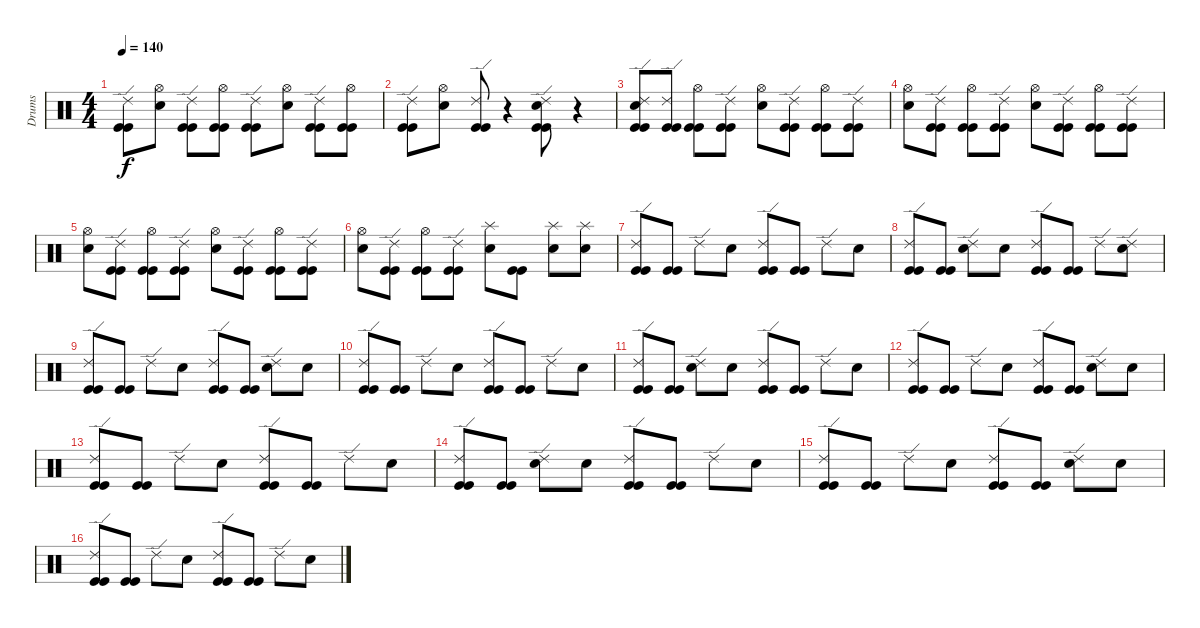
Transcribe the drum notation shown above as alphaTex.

\track ("Drums" "Drums") {instrument percussion}
\staff {score}
\articulation defaults
\ts (4 4)
\tempo 140
\clef neutral
\ks c
("Ride (edge) 2" "Kick (hit)" "Kick (hit)").8{dy f} ("Hi-Hat (open)" "Electric Snare (hit)").8 ("Ride (edge) 2" "Kick (hit)" "Kick (hit)").8 ("Hi-Hat (open)" "Kick (hit)" "Kick (hit)").8 ("Ride (edge) 2" "Kick (hit)" "Kick (hit)").8 ("Hi-Hat (open)" "Electric Snare (hit)").8 ("Ride (edge) 2" "Kick (hit)" "Kick (hit)").8 ("Hi-Hat (open)" "Kick (hit)" "Kick (hit)").8 |
("Ride (edge) 2" "Kick (hit)" "Kick (hit)").8 ("Hi-Hat (open)" "Electric Snare (hit)").8 ("Ride (edge) 2" "Kick (hit)" "Kick (hit)").8 r.4 ("Ride (edge) 2" "Electric Snare (hit)" "Kick (hit)" "Kick (hit)").8 r.4 |
("Ride (edge) 2" "Electric Snare (hit)" "Kick (hit)" "Kick (hit)").8 ("Ride (edge) 2" "Kick (hit)" "Kick (hit)").8 ("Hi-Hat (open)" "Kick (hit)" "Kick (hit)").8 ("Ride (edge) 2" "Kick (hit)" "Kick (hit)").8 ("Hi-Hat (open)" "Electric Snare (hit)").8 ("Ride (edge) 2" "Kick (hit)" "Kick (hit)").8 ("Hi-Hat (open)" "Kick (hit)" "Kick (hit)").8 ("Ride (edge) 2" "Kick (hit)" "Kick (hit)").8 |
("Hi-Hat (open)" "Electric Snare (hit)").8 ("Ride (edge) 2" "Kick (hit)" "Kick (hit)").8 ("Hi-Hat (open)" "Kick (hit)" "Kick (hit)").8 ("Ride (edge) 2" "Kick (hit)" "Kick (hit)").8 ("Hi-Hat (open)" "Electric Snare (hit)").8 ("Ride (edge) 2" "Kick (hit)" "Kick (hit)").8 ("Hi-Hat (open)" "Kick (hit)" "Kick (hit)").8 ("Ride (edge) 2" "Kick (hit)" "Kick (hit)").8 |
("Hi-Hat (open)" "Electric Snare (hit)").8 ("Ride (edge) 2" "Kick (hit)" "Kick (hit)").8 ("Hi-Hat (open)" "Kick (hit)" "Kick (hit)").8 ("Ride (edge) 2" "Kick (hit)" "Kick (hit)").8 ("Hi-Hat (open)" "Electric Snare (hit)").8 ("Ride (edge) 2" "Kick (hit)" "Kick (hit)").8 ("Hi-Hat (open)" "Kick (hit)" "Kick (hit)").8 ("Ride (edge) 2" "Kick (hit)" "Kick (hit)").8 |
("Hi-Hat (open)" "Electric Snare (hit)").8 ("Ride (edge) 2" "Kick (hit)" "Kick (hit)").8 ("Hi-Hat (open)" "Kick (hit)" "Kick (hit)").8 ("Ride (edge) 2" "Kick (hit)" "Kick (hit)").8 ("Splash (hit)" "Electric Snare (hit)").8 ("Kick (hit)" "Kick (hit)").8 ("Splash (hit)" "Electric Snare (hit)").8 ("Splash (hit)" "Electric Snare (hit)").8 |
("Ride (edge) 2" "Kick (hit)" "Kick (hit)").8 ("Kick (hit)" "Kick (hit)").8 "Ride (edge) 2".8 "Electric Snare (hit)".8 ("Ride (edge) 2" "Kick (hit)" "Kick (hit)").8 ("Kick (hit)" "Kick (hit)").8 "Ride (edge) 2".8 "Electric Snare (hit)".8 |
("Ride (edge) 2" "Kick (hit)" "Kick (hit)").8 ("Kick (hit)" "Kick (hit)").8 ("Ride (edge) 2" "Electric Snare (hit)").8 "Electric Snare (hit)".8 ("Ride (edge) 2" "Kick (hit)" "Kick (hit)").8 ("Kick (hit)" "Kick (hit)").8 "Ride (edge) 2".8 ("Ride (edge) 2" "Electric Snare (hit)").8 |
("Ride (edge) 2" "Kick (hit)" "Kick (hit)").8 ("Kick (hit)" "Kick (hit)").8 "Ride (edge) 2".8 "Electric Snare (hit)".8 ("Ride (edge) 2" "Kick (hit)" "Kick (hit)").8 ("Kick (hit)" "Kick (hit)").8 ("Ride (edge) 2" "Electric Snare (hit)").8 "Electric Snare (hit)".8 |
("Ride (edge) 2" "Kick (hit)" "Kick (hit)").8 ("Kick (hit)" "Kick (hit)").8 "Ride (edge) 2".8 "Electric Snare (hit)".8 ("Ride (edge) 2" "Kick (hit)" "Kick (hit)").8 ("Kick (hit)" "Kick (hit)").8 "Ride (edge) 2".8 "Electric Snare (hit)".8 |
("Ride (edge) 2" "Kick (hit)" "Kick (hit)").8 ("Kick (hit)" "Kick (hit)").8 ("Ride (edge) 2" "Electric Snare (hit)").8 "Electric Snare (hit)".8 ("Ride (edge) 2" "Kick (hit)" "Kick (hit)").8 ("Kick (hit)" "Kick (hit)").8 "Ride (edge) 2".8 "Electric Snare (hit)".8 |
("Ride (edge) 2" "Kick (hit)" "Kick (hit)").8 ("Kick (hit)" "Kick (hit)").8 "Ride (edge) 2".8 "Electric Snare (hit)".8 ("Ride (edge) 2" "Kick (hit)" "Kick (hit)").8 ("Kick (hit)" "Kick (hit)").8 ("Ride (edge) 2" "Electric Snare (hit)").8 "Electric Snare (hit)".8 |
("Ride (edge) 2" "Kick (hit)" "Kick (hit)").8 ("Kick (hit)" "Kick (hit)").8 "Ride (edge) 2".8 "Electric Snare (hit)".8 ("Ride (edge) 2" "Kick (hit)" "Kick (hit)").8 ("Kick (hit)" "Kick (hit)").8 "Ride (edge) 2".8 "Electric Snare (hit)".8 |
("Ride (edge) 2" "Kick (hit)" "Kick (hit)").8 ("Kick (hit)" "Kick (hit)").8 ("Ride (edge) 2" "Electric Snare (hit)").8 "Electric Snare (hit)".8 ("Ride (edge) 2" "Kick (hit)" "Kick (hit)").8 ("Kick (hit)" "Kick (hit)").8 "Ride (edge) 2".8 "Electric Snare (hit)".8 |
("Ride (edge) 2" "Kick (hit)" "Kick (hit)").8 ("Kick (hit)" "Kick (hit)").8 "Ride (edge) 2".8 "Electric Snare (hit)".8 ("Ride (edge) 2" "Kick (hit)" "Kick (hit)").8 ("Kick (hit)" "Kick (hit)").8 ("Ride (edge) 2" "Electric Snare (hit)").8 "Electric Snare (hit)".8 |
("Ride (edge) 2" "Kick (hit)" "Kick (hit)").8 ("Kick (hit)" "Kick (hit)").8 "Ride (edge) 2".8 "Electric Snare (hit)".8 ("Ride (edge) 2" "Kick (hit)" "Kick (hit)").8 ("Kick (hit)" "Kick (hit)").8 "Ride (edge) 2".8 "Electric Snare (hit)".8
